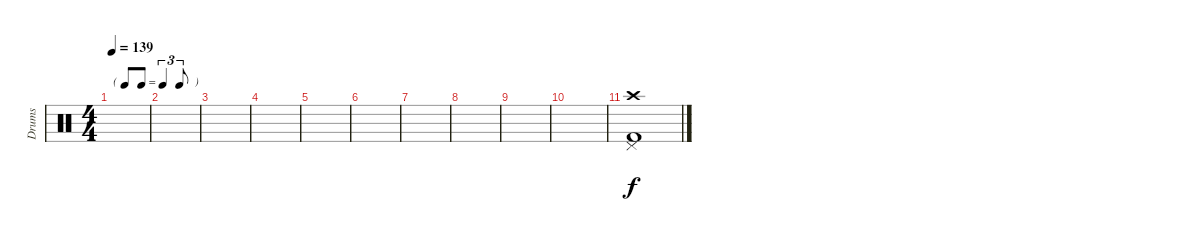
\track ("Drums" "Drums") {instrument percussion}
\staff {score}
\articulation defaults
\ts (4 4)
\tf triplet8th
\tempo 139
\clef neutral
\ks c
|
|
|
|
|
|
|
|
|
|
("Crash high (hit)" "Pedal Hi-Hat (hit)" "Kick (hit) 2").1
